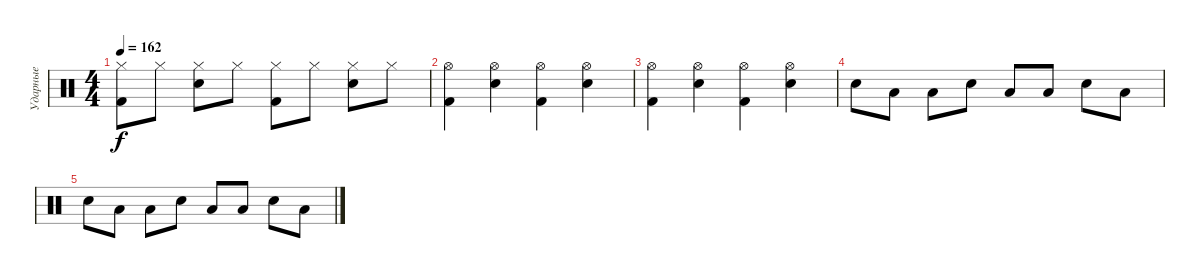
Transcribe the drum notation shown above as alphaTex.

\track ("Ударные" "Ударные") {instrument percussion}
\staff {score}
\articulation defaults
\ts (4 4)
\tempo 162
\clef neutral
\ks c
("Hi-Hat (closed)" "Kick (hit) 2").8{dy f} "Hi-Hat (closed)".8 ("Hi-Hat (closed)" "Snare (hit) 2").8 "Hi-Hat (closed)".8 ("Hi-Hat (closed)" "Kick (hit) 2").8 "Hi-Hat (closed)".8 ("Hi-Hat (closed)" "Snare (hit) 2").8 "Hi-Hat (closed)".8 |
("Hi-Hat (open)" "Kick (hit) 2").4 ("Hi-Hat (open)" "Snare (hit) 2").4 ("Hi-Hat (open)" "Kick (hit) 2").4 ("Hi-Hat (open)" "Snare (hit) 2").4 |
("Hi-Hat (open)" "Kick (hit) 2").4 ("Hi-Hat (open)" "Snare (hit) 2").4 ("Hi-Hat (open)" "Kick (hit) 2").4 ("Hi-Hat (open)" "Snare (hit) 2").4 |
"Snare (hit) 2".8 "Low Floor Tom (hit)".8 "Low Floor Tom (hit)".8 "Snare (hit) 2".8 "Low Floor Tom (hit)".8 "Low Floor Tom (hit)".8 "Snare (hit) 2".8 "Low Floor Tom (hit)".8 |
"Snare (hit) 2".8 "Low Floor Tom (hit)".8 "Low Floor Tom (hit)".8 "Snare (hit) 2".8 "Low Floor Tom (hit)".8 "Low Floor Tom (hit)".8 "Snare (hit) 2".8 "Low Floor Tom (hit)".8
